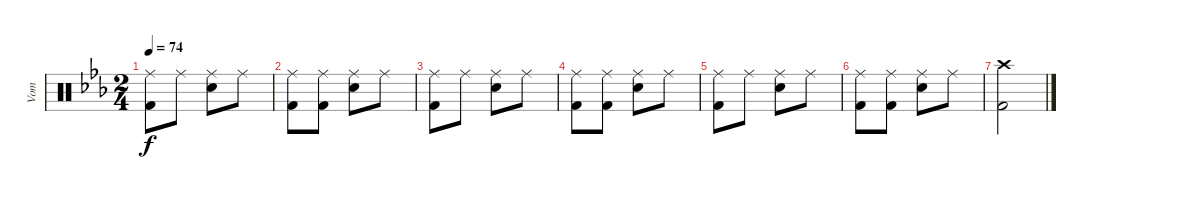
\track ("Vom" "Vom") {instrument percussion}
\staff {score}
\articulation defaults
\ts (2 4)
\tempo 74
\clef neutral
\ks eb
("Ride (middle)" "Kick (hit) 2").8{dy f} "Ride (middle)".8 ("Ride (middle)" "Snare (hit) 2").8 "Ride (middle)".8 |
("Ride (middle)" "Kick (hit) 2").8 ("Ride (middle)" "Kick (hit) 2").8 ("Ride (middle)" "Snare (hit) 2").8 "Ride (middle)".8 |
("Ride (middle)" "Kick (hit) 2").8 "Ride (middle)".8 ("Ride (middle)" "Snare (hit) 2").8 "Ride (middle)".8 |
("Ride (middle)" "Kick (hit) 2").8 ("Ride (middle)" "Kick (hit) 2").8 ("Ride (middle)" "Snare (hit) 2").8 "Ride (middle)".8 |
("Ride (middle)" "Kick (hit) 2").8 "Ride (middle)".8 ("Ride (middle)" "Snare (hit) 2").8 "Ride (middle)".8 |
("Ride (middle)" "Kick (hit) 2").8 ("Ride (middle)" "Kick (hit) 2").8 ("Ride (middle)" "Snare (hit) 2").8 "Ride (middle)".8 |
("Crash high (hit)" "Kick (hit) 2").2
